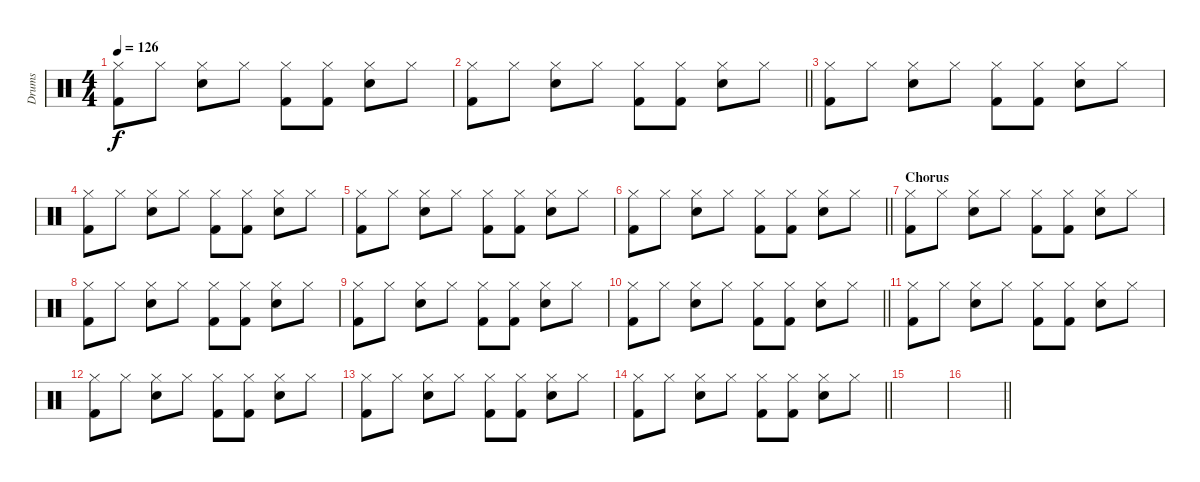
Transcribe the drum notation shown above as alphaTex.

\track ("Drums" "Drums") {instrument percussion}
\staff {score}
\articulation defaults
\ts (4 4)
\tempo 126
\clef neutral
\ks c
("Hi-Hat (closed)" "Kick (hit) 2").8{dy f} "Hi-Hat (closed)".8 ("Hi-Hat (closed)" "Snare (hit) 2").8 "Hi-Hat (closed)".8 ("Hi-Hat (closed)" "Kick (hit) 2").8 ("Hi-Hat (closed)" "Kick (hit) 2").8 ("Hi-Hat (closed)" "Snare (hit) 2").8 "Hi-Hat (closed)".8 |
\barLineRight lightlight
("Hi-Hat (closed)" "Kick (hit) 2").8 "Hi-Hat (closed)".8 ("Hi-Hat (closed)" "Snare (hit) 2").8 "Hi-Hat (closed)".8 ("Hi-Hat (closed)" "Kick (hit) 2").8 ("Hi-Hat (closed)" "Kick (hit) 2").8 ("Hi-Hat (closed)" "Snare (hit) 2").8 "Hi-Hat (closed)".8 |
("Hi-Hat (closed)" "Kick (hit) 2").8 "Hi-Hat (closed)".8 ("Hi-Hat (closed)" "Snare (hit) 2").8 "Hi-Hat (closed)".8 ("Hi-Hat (closed)" "Kick (hit) 2").8 ("Hi-Hat (closed)" "Kick (hit) 2").8 ("Hi-Hat (closed)" "Snare (hit) 2").8 "Hi-Hat (closed)".8 |
("Hi-Hat (closed)" "Kick (hit) 2").8 "Hi-Hat (closed)".8 ("Hi-Hat (closed)" "Snare (hit) 2").8 "Hi-Hat (closed)".8 ("Hi-Hat (closed)" "Kick (hit) 2").8 ("Hi-Hat (closed)" "Kick (hit) 2").8 ("Hi-Hat (closed)" "Snare (hit) 2").8 "Hi-Hat (closed)".8 |
("Hi-Hat (closed)" "Kick (hit) 2").8 "Hi-Hat (closed)".8 ("Hi-Hat (closed)" "Snare (hit) 2").8 "Hi-Hat (closed)".8 ("Hi-Hat (closed)" "Kick (hit) 2").8 ("Hi-Hat (closed)" "Kick (hit) 2").8 ("Hi-Hat (closed)" "Snare (hit) 2").8 "Hi-Hat (closed)".8 |
\barLineRight lightlight
("Hi-Hat (closed)" "Kick (hit) 2").8 "Hi-Hat (closed)".8 ("Hi-Hat (closed)" "Snare (hit) 2").8 "Hi-Hat (closed)".8 ("Hi-Hat (closed)" "Kick (hit) 2").8 ("Hi-Hat (closed)" "Kick (hit) 2").8 ("Hi-Hat (closed)" "Snare (hit) 2").8 "Hi-Hat (closed)".8 |
\section ("" "Chorus")
("Hi-Hat (closed)" "Kick (hit) 2").8 "Hi-Hat (closed)".8 ("Hi-Hat (closed)" "Snare (hit) 2").8 "Hi-Hat (closed)".8 ("Hi-Hat (closed)" "Kick (hit) 2").8 ("Hi-Hat (closed)" "Kick (hit) 2").8 ("Hi-Hat (closed)" "Snare (hit) 2").8 "Hi-Hat (closed)".8 |
("Hi-Hat (closed)" "Kick (hit) 2").8 "Hi-Hat (closed)".8 ("Hi-Hat (closed)" "Snare (hit) 2").8 "Hi-Hat (closed)".8 ("Hi-Hat (closed)" "Kick (hit) 2").8 ("Hi-Hat (closed)" "Kick (hit) 2").8 ("Hi-Hat (closed)" "Snare (hit) 2").8 "Hi-Hat (closed)".8 |
("Hi-Hat (closed)" "Kick (hit) 2").8 "Hi-Hat (closed)".8 ("Hi-Hat (closed)" "Snare (hit) 2").8 "Hi-Hat (closed)".8 ("Hi-Hat (closed)" "Kick (hit) 2").8 ("Hi-Hat (closed)" "Kick (hit) 2").8 ("Hi-Hat (closed)" "Snare (hit) 2").8 "Hi-Hat (closed)".8 |
\barLineRight lightlight
("Hi-Hat (closed)" "Kick (hit) 2").8 "Hi-Hat (closed)".8 ("Hi-Hat (closed)" "Snare (hit) 2").8 "Hi-Hat (closed)".8 ("Hi-Hat (closed)" "Kick (hit) 2").8 ("Hi-Hat (closed)" "Kick (hit) 2").8 ("Hi-Hat (closed)" "Snare (hit) 2").8 "Hi-Hat (closed)".8 |
("Hi-Hat (closed)" "Kick (hit) 2").8 "Hi-Hat (closed)".8 ("Hi-Hat (closed)" "Snare (hit) 2").8 "Hi-Hat (closed)".8 ("Hi-Hat (closed)" "Kick (hit) 2").8 ("Hi-Hat (closed)" "Kick (hit) 2").8 ("Hi-Hat (closed)" "Snare (hit) 2").8 "Hi-Hat (closed)".8 |
("Hi-Hat (closed)" "Kick (hit) 2").8 "Hi-Hat (closed)".8 ("Hi-Hat (closed)" "Snare (hit) 2").8 "Hi-Hat (closed)".8 ("Hi-Hat (closed)" "Kick (hit) 2").8 ("Hi-Hat (closed)" "Kick (hit) 2").8 ("Hi-Hat (closed)" "Snare (hit) 2").8 "Hi-Hat (closed)".8 |
("Hi-Hat (closed)" "Kick (hit) 2").8 "Hi-Hat (closed)".8 ("Hi-Hat (closed)" "Snare (hit) 2").8 "Hi-Hat (closed)".8 ("Hi-Hat (closed)" "Kick (hit) 2").8 ("Hi-Hat (closed)" "Kick (hit) 2").8 ("Hi-Hat (closed)" "Snare (hit) 2").8 "Hi-Hat (closed)".8 |
\barLineRight lightlight
("Hi-Hat (closed)" "Kick (hit) 2").8 "Hi-Hat (closed)".8 ("Hi-Hat (closed)" "Snare (hit) 2").8 "Hi-Hat (closed)".8 ("Hi-Hat (closed)" "Kick (hit) 2").8 ("Hi-Hat (closed)" "Kick (hit) 2").8 ("Hi-Hat (closed)" "Snare (hit) 2").8 "Hi-Hat (closed)".8 |
|
\barLineRight lightlight
